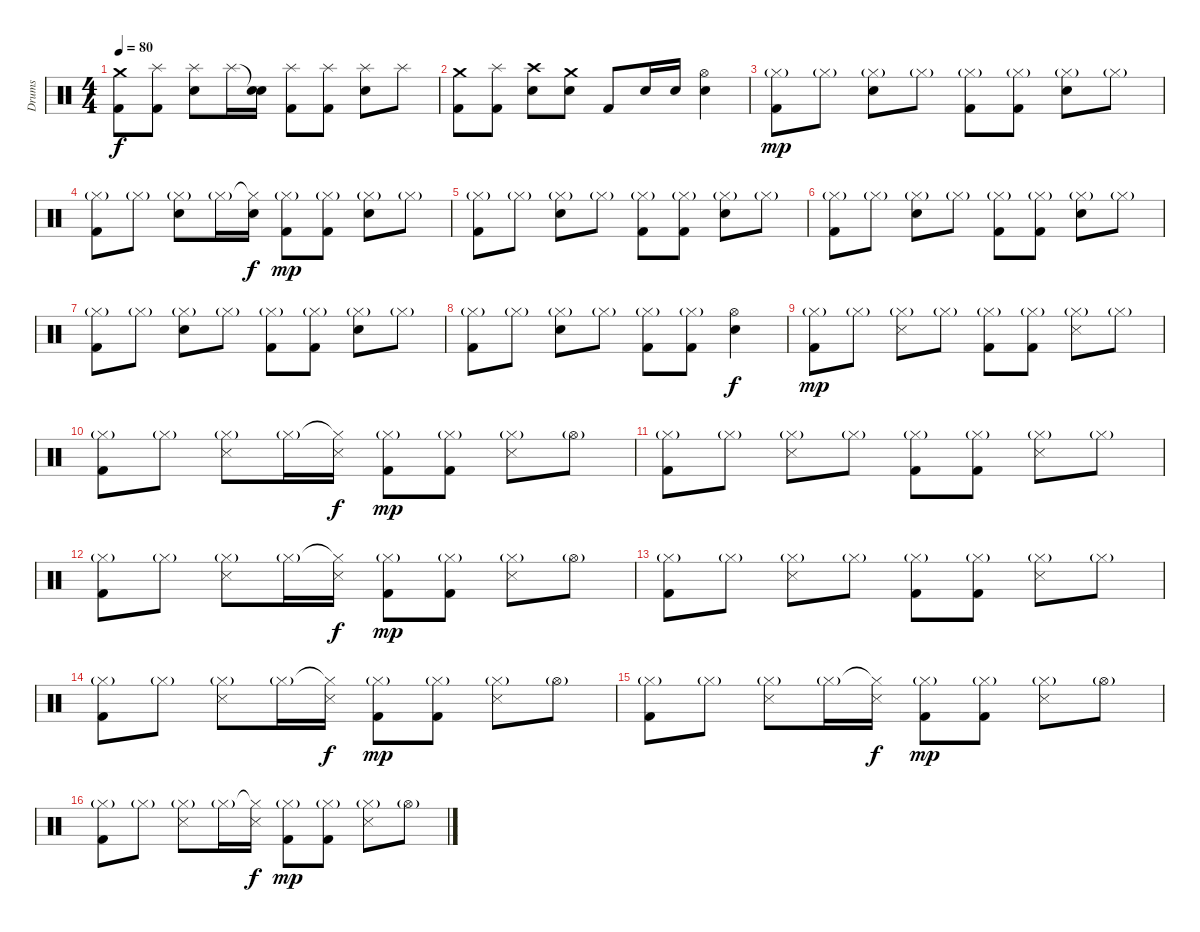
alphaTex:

\track ("Drums" "Drums") {instrument percussion}
\staff {score}
\articulation defaults
\ts (4 4)
\tempo 80
\clef neutral
\ks c
("Crash medium (hit)" "Kick (hit) 2").8{dy f} ("Splash (hit)" "Kick (hit) 2").8 ("Splash (hit)" "Snare (hit) 2").8 "Splash (hit)".16 ("Snare (hit)"{t} "Snare (hit) 2").16 ("Splash (hit)" "Kick (hit) 2").8 ("Splash (hit)" "Kick (hit) 2").8 ("Splash (hit)" "Snare (hit) 2").8 "Splash (hit)".8 |
("Crash medium (hit)" "Kick (hit) 2").8 ("Splash (hit)" "Kick (hit) 2").8 ("Crash high (hit)" "Snare (hit) 2").8 ("Crash medium (hit)" "Snare (hit) 2").8 "Kick (hit) 2".8 "Snare (hit) 2".16 "Snare (hit) 2".16 ("Hi-Hat (open)" "Snare (hit) 2").4 |
("Hi-Hat (closed)"{g} "Kick (hit) 2").8{dy mp} "Hi-Hat (closed)"{g}.8 ("Hi-Hat (closed)"{g} "Snare (hit) 2").8 "Hi-Hat (closed)"{g}.8 ("Hi-Hat (closed)"{g} "Kick (hit) 2").8 ("Hi-Hat (closed)"{g} "Kick (hit) 2").8 ("Hi-Hat (closed)"{g} "Snare (hit) 2").8 "Hi-Hat (closed)"{g}.8 |
("Hi-Hat (closed)"{g} "Kick (hit) 2").8 "Hi-Hat (closed)"{g}.8 ("Hi-Hat (closed)"{g} "Snare (hit) 2").8 "Hi-Hat (closed)"{g}.16 ("Hi-Hat (closed)"{t} "Snare (hit) 2").16{dy f} ("Hi-Hat (closed)"{g} "Kick (hit) 2").8{dy mp} ("Hi-Hat (closed)"{g} "Kick (hit) 2").8 ("Hi-Hat (closed)"{g} "Snare (hit) 2").8 "Hi-Hat (closed)"{g}.8 |
("Hi-Hat (closed)"{g} "Kick (hit) 2").8 "Hi-Hat (closed)"{g}.8 ("Hi-Hat (closed)"{g} "Snare (hit) 2").8 "Hi-Hat (closed)"{g}.8 ("Hi-Hat (closed)"{g} "Kick (hit) 2").8 ("Hi-Hat (closed)"{g} "Kick (hit) 2").8 ("Hi-Hat (closed)"{g} "Snare (hit) 2").8 "Hi-Hat (closed)"{g}.8 |
("Hi-Hat (closed)"{g} "Kick (hit) 2").8 "Hi-Hat (closed)"{g}.8 ("Hi-Hat (closed)"{g} "Snare (hit) 2").8 "Hi-Hat (closed)"{g}.8 ("Hi-Hat (closed)"{g} "Kick (hit) 2").8 ("Hi-Hat (closed)"{g} "Kick (hit) 2").8 ("Hi-Hat (closed)"{g} "Snare (hit) 2").8 "Hi-Hat (closed)"{g}.8 |
("Hi-Hat (closed)"{g} "Kick (hit) 2").8 "Hi-Hat (closed)"{g}.8 ("Hi-Hat (closed)"{g} "Snare (hit) 2").8 "Hi-Hat (closed)"{g}.8 ("Hi-Hat (closed)"{g} "Kick (hit) 2").8 ("Hi-Hat (closed)"{g} "Kick (hit) 2").8 ("Hi-Hat (closed)"{g} "Snare (hit) 2").8 "Hi-Hat (closed)"{g}.8 |
("Hi-Hat (closed)"{g} "Kick (hit) 2").8 "Hi-Hat (closed)"{g}.8 ("Hi-Hat (closed)"{g} "Snare (hit) 2").8 "Hi-Hat (closed)"{g}.8 ("Hi-Hat (closed)"{g} "Kick (hit) 2").8 ("Hi-Hat (closed)"{g} "Kick (hit) 2").8 ("Hi-Hat (open)" "Snare (hit) 2").4{dy f} |
("Hi-Hat (closed)"{g} "Kick (hit) 2").8{dy mp} "Hi-Hat (closed)"{g}.8 ("Hi-Hat (closed)"{g} "Snare (side stick) 3").8 "Hi-Hat (closed)"{g}.8 ("Hi-Hat (closed)"{g} "Kick (hit) 2").8 ("Hi-Hat (closed)"{g} "Kick (hit) 2").8 ("Hi-Hat (closed)"{g} "Snare (side stick) 3").8 "Hi-Hat (closed)"{g}.8 |
("Hi-Hat (closed)"{g} "Kick (hit) 2").8 "Hi-Hat (closed)"{g}.8 ("Hi-Hat (closed)"{g} "Snare (side stick) 3").8 "Hi-Hat (closed)"{g}.16 ("Hi-Hat (closed)"{t} "Snare (side stick) 3").16{dy f} ("Hi-Hat (closed)"{g} "Kick (hit) 2").8{dy mp} ("Hi-Hat (closed)"{g} "Kick (hit) 2").8 ("Hi-Hat (closed)"{g} "Snare (side stick) 3").8 "Hi-Hat (open)"{g}.8 |
("Hi-Hat (closed)"{g} "Kick (hit) 2").8 "Hi-Hat (closed)"{g}.8 ("Hi-Hat (closed)"{g} "Snare (side stick) 3").8 "Hi-Hat (closed)"{g}.8 ("Hi-Hat (closed)"{g} "Kick (hit) 2").8 ("Hi-Hat (closed)"{g} "Kick (hit) 2").8 ("Hi-Hat (closed)"{g} "Snare (side stick) 3").8 "Hi-Hat (closed)"{g}.8 |
("Hi-Hat (closed)"{g} "Kick (hit) 2").8 "Hi-Hat (closed)"{g}.8 ("Hi-Hat (closed)"{g} "Snare (side stick) 3").8 "Hi-Hat (closed)"{g}.16 ("Hi-Hat (closed)"{t} "Snare (side stick) 3").16{dy f} ("Hi-Hat (closed)"{g} "Kick (hit) 2").8{dy mp} ("Hi-Hat (closed)"{g} "Kick (hit) 2").8 ("Hi-Hat (closed)"{g} "Snare (side stick) 3").8 "Hi-Hat (open)"{g}.8 |
("Hi-Hat (closed)"{g} "Kick (hit) 2").8 "Hi-Hat (closed)"{g}.8 ("Hi-Hat (closed)"{g} "Snare (side stick) 3").8 "Hi-Hat (closed)"{g}.8 ("Hi-Hat (closed)"{g} "Kick (hit) 2").8 ("Hi-Hat (closed)"{g} "Kick (hit) 2").8 ("Hi-Hat (closed)"{g} "Snare (side stick) 3").8 "Hi-Hat (closed)"{g}.8 |
("Hi-Hat (closed)"{g} "Kick (hit) 2").8 "Hi-Hat (closed)"{g}.8 ("Hi-Hat (closed)"{g} "Snare (side stick) 3").8 "Hi-Hat (closed)"{g}.16 ("Hi-Hat (closed)"{t} "Snare (side stick) 3").16{dy f} ("Hi-Hat (closed)"{g} "Kick (hit) 2").8{dy mp} ("Hi-Hat (closed)"{g} "Kick (hit) 2").8 ("Hi-Hat (closed)"{g} "Snare (side stick) 3").8 "Hi-Hat (open)"{g}.8 |
("Hi-Hat (closed)"{g} "Kick (hit) 2").8 "Hi-Hat (closed)"{g}.8 ("Hi-Hat (closed)"{g} "Snare (side stick) 3").8 "Hi-Hat (closed)"{g}.16 ("Hi-Hat (closed)"{t} "Snare (side stick) 3").16{dy f} ("Hi-Hat (closed)"{g} "Kick (hit) 2").8{dy mp} ("Hi-Hat (closed)"{g} "Kick (hit) 2").8 ("Hi-Hat (closed)"{g} "Snare (side stick) 3").8 "Hi-Hat (open)"{g}.8 |
("Hi-Hat (closed)"{g} "Kick (hit) 2").8 "Hi-Hat (closed)"{g}.8 ("Hi-Hat (closed)"{g} "Snare (side stick) 3").8 "Hi-Hat (closed)"{g}.16 ("Hi-Hat (closed)"{t} "Snare (side stick) 3").16{dy f} ("Hi-Hat (closed)"{g} "Kick (hit) 2").8{dy mp} ("Hi-Hat (closed)"{g} "Kick (hit) 2").8 ("Hi-Hat (closed)"{g} "Snare (side stick) 3").8 "Hi-Hat (open)"{g}.8
